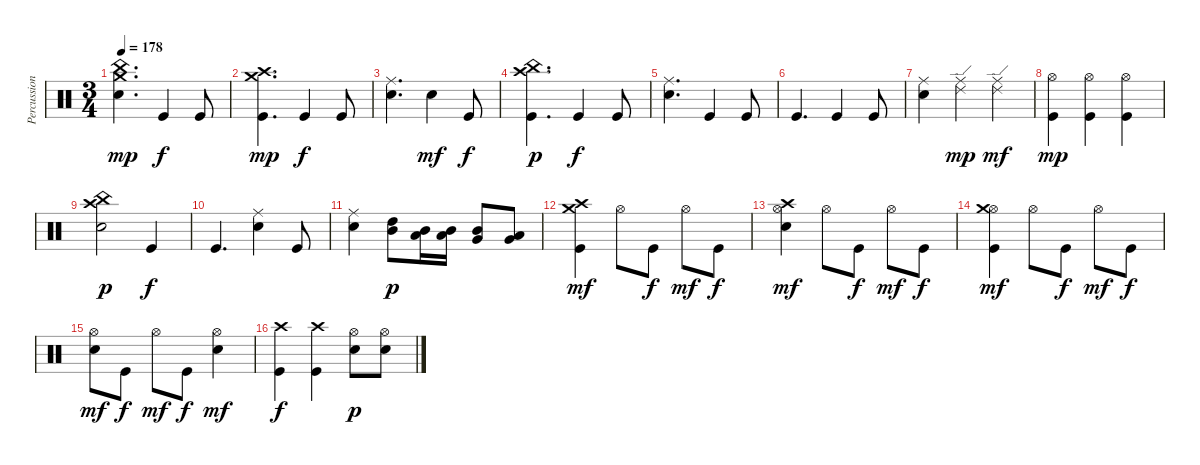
\track ("Percussions" "Percussion") {instrument percussion}
\staff {score}
\articulation defaults
\ts (3 4)
\tempo 178
\clef neutral
\ks c
("Electric Snare (hit)" "China (hit)" "Crash medium (hit)").4{d dy mp} "Kick (hit)".4{dy f} "Kick (hit)".8 |
("Kick (hit)" "Crash medium (hit)" "Crash high (hit)").4{d dy mp} "Kick (hit)".4{dy f} "Kick (hit)".8 |
("Electric Snare (hit)" "Ride (middle)").4{d} "Electric Snare (hit)".4{dy mf} "Kick (hit)".8{dy f} |
("Kick (hit)" "Crash high (hit)" "China (hit)").4{d dy p} "Kick (hit)".4{dy f} "Kick (hit)".8 |
("Electric Snare (hit)" "Ride (middle)").4{d} "Kick (hit)".4 "Kick (hit)".8 |
"Kick (hit)".4{d} "Kick (hit)".4 "Kick (hit)".8 |
("Electric Snare (hit)" "Ride (middle)").4 ("Ride (middle)" "Ride (edge) 2").4{dy mp} ("Ride (middle)" "Ride (edge) 2").4{dy mf} |
("Kick (hit)" "Hi-Hat (open)").4{dy mp} ("Kick (hit)" "Hi-Hat (open)").4 ("Kick (hit)" "Hi-Hat (open)").4 |
("Electric Snare (hit)" "Crash high (hit)" "China (hit)").2{dy p} "Kick (hit)".4{dy f} |
"Kick (hit)".4{d} ("Electric Snare (hit)" "Ride (middle)").4 "Kick (hit)".8 |
("Electric Snare (hit)" "Ride (middle)").4 ("Mid Tom (hit)" "High Tom (hit)").8{dy p} ("Low Tom (hit)" "Mid Tom (hit)").16 ("Low Tom (hit)" "Mid Tom (hit)").16 ("Very Low Tom (hit)" "Mid Tom (hit)").8 ("Very Low Tom (hit)" "Low Tom (hit)").8 |
("Kick (hit)" "Crash high (hit)" "Crash medium (hit)").4{dy mf} "Hi-Hat (open)".8 "Kick (hit)".8{dy f} "Hi-Hat (open)".8{dy mf} "Kick (hit)".8{dy f} |
("Electric Snare (hit)" "Hi-Hat (open)" "Crash high (hit)").4{dy mf} "Hi-Hat (open)".8 "Kick (hit)".8{dy f} "Hi-Hat (open)".8{dy mf} "Kick (hit)".8{dy f} |
("Kick (hit)" "Hi-Hat (open)" "Crash medium (hit)").4{dy mf} "Hi-Hat (open)".8 "Kick (hit)".8{dy f} "Hi-Hat (open)".8{dy mf} "Kick (hit)".8{dy f} |
("Electric Snare (hit)" "Hi-Hat (open)").8{dy mf} "Kick (hit)".8{dy f} "Hi-Hat (open)".8{dy mf} "Kick (hit)".8{dy f} ("Electric Snare (hit)" "Hi-Hat (open)").4{dy mf} |
("Kick (hit)" "Crash high (hit)").4{dy f} ("Kick (hit)" "Crash high (hit)").4 ("Electric Snare (hit)" "Hi-Hat (open)").8{dy p} ("Electric Snare (hit)" "Hi-Hat (open)").8
